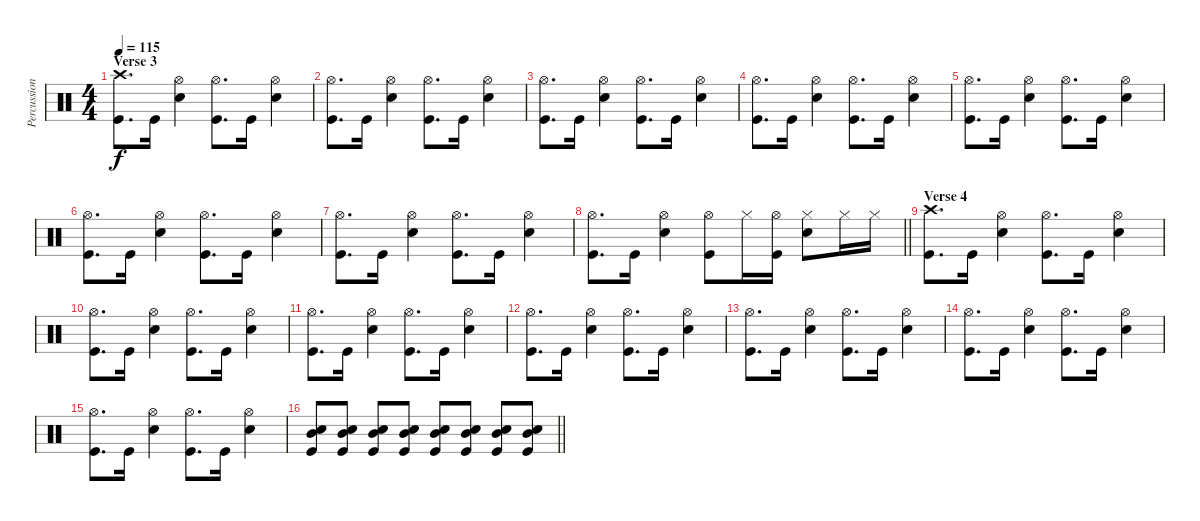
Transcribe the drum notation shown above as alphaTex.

\track ("Percussion" "Percussion") {instrument percussion}
\staff {score}
\articulation defaults
\ts (4 4)
\section ("" "Verse 3")
\tempo 115
\clef neutral
\ks c
("Crash high (hit)" "Kick (hit)").8{d dy f} "Kick (hit)".16 ("Hi-Hat (open)" "Electric Snare (hit)").4 ("Hi-Hat (open)" "Kick (hit)").8{d} "Kick (hit)".16 ("Hi-Hat (open)" "Electric Snare (hit)").4 |
("Hi-Hat (open)" "Kick (hit)").8{d} "Kick (hit)".16 ("Hi-Hat (open)" "Electric Snare (hit)").4 ("Hi-Hat (open)" "Kick (hit)").8{d} "Kick (hit)".16 ("Hi-Hat (open)" "Electric Snare (hit)").4 |
("Hi-Hat (open)" "Kick (hit)").8{d} "Kick (hit)".16 ("Hi-Hat (open)" "Electric Snare (hit)").4 ("Hi-Hat (open)" "Kick (hit)").8{d} "Kick (hit)".16 ("Hi-Hat (open)" "Electric Snare (hit)").4 |
("Hi-Hat (open)" "Kick (hit)").8{d} "Kick (hit)".16 ("Hi-Hat (open)" "Electric Snare (hit)").4 ("Hi-Hat (open)" "Kick (hit)").8{d} "Kick (hit)".16 ("Hi-Hat (open)" "Electric Snare (hit)").4 |
("Hi-Hat (open)" "Kick (hit)").8{d} "Kick (hit)".16 ("Hi-Hat (open)" "Electric Snare (hit)").4 ("Hi-Hat (open)" "Kick (hit)").8{d} "Kick (hit)".16 ("Hi-Hat (open)" "Electric Snare (hit)").4 |
("Hi-Hat (open)" "Kick (hit)").8{d} "Kick (hit)".16 ("Hi-Hat (open)" "Electric Snare (hit)").4 ("Hi-Hat (open)" "Kick (hit)").8{d} "Kick (hit)".16 ("Hi-Hat (open)" "Electric Snare (hit)").4 |
("Hi-Hat (open)" "Kick (hit)").8{d} "Kick (hit)".16 ("Hi-Hat (open)" "Electric Snare (hit)").4 ("Hi-Hat (open)" "Kick (hit)").8{d} "Kick (hit)".16 ("Hi-Hat (open)" "Electric Snare (hit)").4 |
\barLineRight lightlight
("Hi-Hat (open)" "Kick (hit)").8{d} "Kick (hit)".16 ("Hi-Hat (open)" "Electric Snare (hit)").4 ("Hi-Hat (open)" "Kick (hit)").8 "Hi-Hat (closed)".16 ("Hi-Hat (open)" "Kick (hit)").16 ("Hi-Hat (closed)" "Electric Snare (hit)").8 "Hi-Hat (closed)".16 "Hi-Hat (closed)".16 |
\section ("" "Verse 4")
("Crash high (hit)" "Kick (hit)").8{d} "Kick (hit)".16 ("Hi-Hat (open)" "Electric Snare (hit)").4 ("Hi-Hat (open)" "Kick (hit)").8{d} "Kick (hit)".16 ("Hi-Hat (open)" "Electric Snare (hit)").4 |
("Hi-Hat (open)" "Kick (hit)").8{d} "Kick (hit)".16 ("Hi-Hat (open)" "Electric Snare (hit)").4 ("Hi-Hat (open)" "Kick (hit)").8{d} "Kick (hit)".16 ("Hi-Hat (open)" "Electric Snare (hit)").4 |
("Hi-Hat (open)" "Kick (hit)").8{d} "Kick (hit)".16 ("Hi-Hat (open)" "Electric Snare (hit)").4 ("Hi-Hat (open)" "Kick (hit)").8{d} "Kick (hit)".16 ("Hi-Hat (open)" "Electric Snare (hit)").4 |
("Hi-Hat (open)" "Kick (hit)").8{d} "Kick (hit)".16 ("Hi-Hat (open)" "Electric Snare (hit)").4 ("Hi-Hat (open)" "Kick (hit)").8{d} "Kick (hit)".16 ("Hi-Hat (open)" "Electric Snare (hit)").4 |
("Hi-Hat (open)" "Kick (hit)").8{d} "Kick (hit)".16 ("Hi-Hat (open)" "Electric Snare (hit)").4 ("Hi-Hat (open)" "Kick (hit)").8{d} "Kick (hit)".16 ("Hi-Hat (open)" "Electric Snare (hit)").4 |
("Hi-Hat (open)" "Kick (hit)").8{d} "Kick (hit)".16 ("Hi-Hat (open)" "Electric Snare (hit)").4 ("Hi-Hat (open)" "Kick (hit)").8{d} "Kick (hit)".16 ("Hi-Hat (open)" "Electric Snare (hit)").4 |
("Hi-Hat (open)" "Kick (hit)").8{d} "Kick (hit)".16 ("Hi-Hat (open)" "Electric Snare (hit)").4 ("Hi-Hat (open)" "Kick (hit)").8{d} "Kick (hit)".16 ("Hi-Hat (open)" "Electric Snare (hit)").4{volume 8} |
\barLineRight lightlight
("Mid Tom (hit)" "Electric Snare (hit)" "Kick (hit)").8{volume 13} ("Mid Tom (hit)" "Electric Snare (hit)" "Kick (hit)").8 ("Mid Tom (hit)" "Electric Snare (hit)" "Kick (hit)").8 ("Mid Tom (hit)" "Electric Snare (hit)" "Kick (hit)").8 ("Mid Tom (hit)" "Electric Snare (hit)" "Kick (hit)").8 ("Mid Tom (hit)" "Electric Snare (hit)" "Kick (hit)").8 ("Mid Tom (hit)" "Electric Snare (hit)" "Kick (hit)").8 ("Mid Tom (hit)" "Electric Snare (hit)" "Kick (hit)").8
